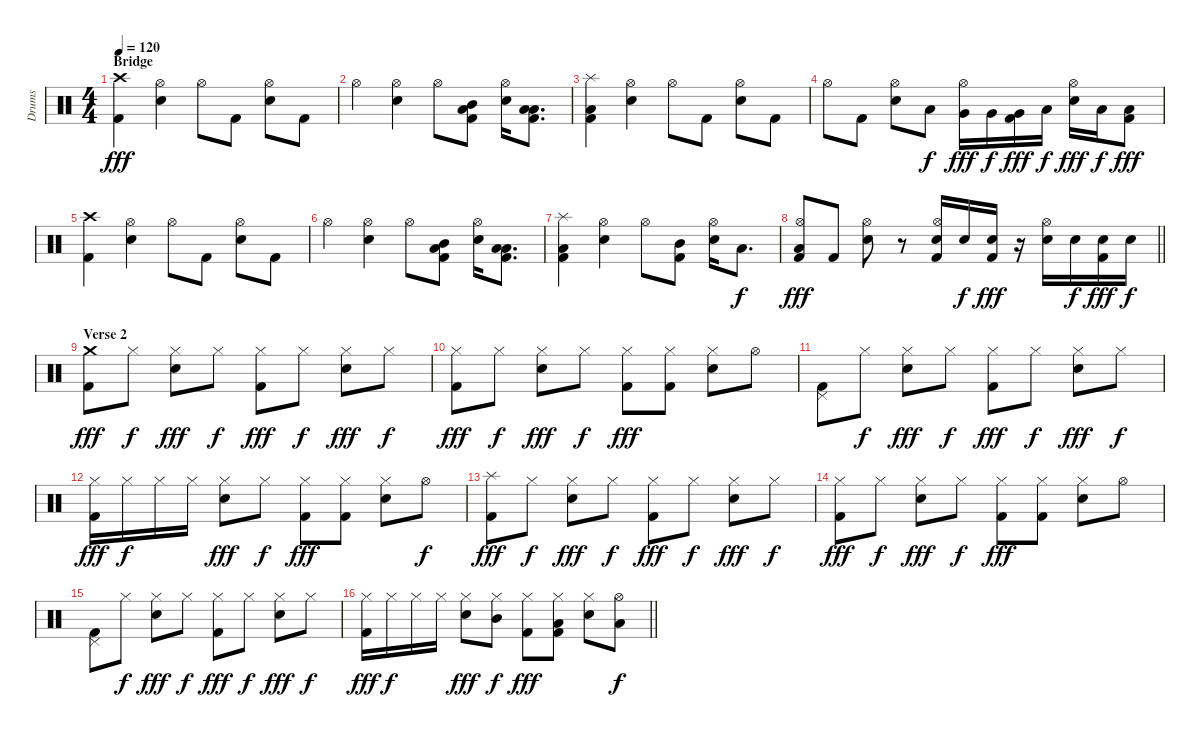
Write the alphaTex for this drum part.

\track ("Drums" "Drums") {instrument percussion}
\staff {score}
\articulation defaults
\ts (4 4)
\section ("" "Bridge")
\tempo 120
\clef neutral
\ks c
("Crash high (hit)" "Kick (hit) 2").4{dy fff} ("Hi-Hat (open)" "Snare (hit) 2").4 "Hi-Hat (open)".8 "Kick (hit) 2".8 ("Hi-Hat (open)" "Snare (hit) 2").8 "Kick (hit) 2".8 |
"Hi-Hat (open)".4 ("Hi-Hat (open)" "Snare (hit) 2").4 "Hi-Hat (open)".8 ("Mid Tom (hit)" "Low Floor Tom (hit)" "Kick (hit) 2").8 ("Hi-Hat (open)" "Snare (hit) 2").16 ("Low Tom (hit)" "Low Floor Tom (hit)" "Kick (hit) 2").8{d} |
("Splash (hit)" "Low Floor Tom (hit)" "Kick (hit) 2").4 ("Hi-Hat (open)" "Snare (hit) 2").4 "Hi-Hat (open)".8 "Kick (hit) 2".8 ("Hi-Hat (open)" "Snare (hit) 2").8 "Kick (hit) 2".8 |
"Hi-Hat (open)".8 "Kick (hit) 2".8 ("Hi-Hat (open)" "Snare (hit) 2").8 "Low Tom (hit)".8{dy f} ("Hi-Hat (open)" "Very Low Tom (hit)").16{dy fff} "Very Low Tom (hit)".16{dy f} ("Very Low Tom (hit)" "Kick (hit) 2").16{dy fff} "Low Floor Tom (hit)".16{dy f} ("Hi-Hat (open)" "Snare (hit) 2").16{dy fff} "Low Floor Tom (hit)".16{dy f} ("Low Floor Tom (hit)" "Kick (hit) 2").8{dy fff} |
("Crash high (hit)" "Kick (hit) 2").4 ("Hi-Hat (open)" "Snare (hit) 2").4 "Hi-Hat (open)".8 "Kick (hit) 2".8 ("Hi-Hat (open)" "Snare (hit) 2").8 "Kick (hit) 2".8 |
"Hi-Hat (open)".4 ("Hi-Hat (open)" "Snare (hit) 2").4 "Hi-Hat (open)".8 ("Mid Tom (hit)" "Low Floor Tom (hit)" "Kick (hit) 2").8 ("Hi-Hat (open)" "Snare (hit) 2").16 ("Low Tom (hit)" "Low Floor Tom (hit)" "Kick (hit) 2").8{d} |
("Splash (hit)" "Low Floor Tom (hit)" "Kick (hit) 2").4 ("Hi-Hat (open)" "Snare (hit) 2").4 "Hi-Hat (open)".8 ("Mid Tom (hit)" "Kick (hit) 2").8 ("Hi-Hat (open)" "Snare (hit) 2").16 "Low Tom (hit)".8{d dy f} |
\barLineRight lightlight
("Hi-Hat (open)" "Low Floor Tom (hit)" "Kick (hit) 2").8{dy fff} "Kick (hit) 2".8 ("Hi-Hat (open)" "Snare (hit) 2").8 r.8 ("Hi-Hat (open)" "Snare (hit) 2" "Kick (hit) 2").16 "Snare (hit) 2".16{dy f} ("Snare (hit) 2" "Kick (hit) 2").16{dy fff} r.16 ("Hi-Hat (open)" "Snare (hit) 2").16 "Snare (hit) 2".16{dy f} ("Snare (hit) 2" "Kick (hit) 2").16{dy fff} "Snare (hit) 2".16{dy f} |
\section ("" "Verse 2")
("Crash medium (hit)" "Kick (hit) 2").8{dy fff} "Hi-Hat (closed)".8{dy f} ("Hi-Hat (closed)" "Snare (hit) 2").8{dy fff} "Hi-Hat (closed)".8{dy f} ("Hi-Hat (closed)" "Kick (hit) 2").8{dy fff} "Hi-Hat (closed)".8{dy f} ("Hi-Hat (closed)" "Snare (hit) 2").8{dy fff} "Hi-Hat (closed)".8{dy f} |
("Hi-Hat (closed)" "Kick (hit) 2").8{dy fff} "Hi-Hat (closed)".8{dy f} ("Hi-Hat (closed)" "Snare (hit) 2").8{dy fff} "Hi-Hat (closed)".8{dy f} ("Hi-Hat (closed)" "Kick (hit) 2").8{dy fff} ("Hi-Hat (closed)" "Kick (hit) 2").8 ("Hi-Hat (closed)" "Snare (hit) 2").8 "Hi-Hat (open)".8 |
("Pedal Hi-Hat (hit)" "Kick (hit) 2").8 "Hi-Hat (closed)".8{dy f} ("Hi-Hat (closed)" "Snare (hit) 2").8{dy fff} "Hi-Hat (closed)".8{dy f} ("Hi-Hat (closed)" "Kick (hit) 2").8{dy fff} "Hi-Hat (closed)".8{dy f} ("Hi-Hat (closed)" "Snare (hit) 2").8{dy fff} "Hi-Hat (closed)".8{dy f} |
("Hi-Hat (closed)" "Kick (hit) 2").16{dy fff} "Hi-Hat (closed)".16{dy f} "Hi-Hat (closed)".16 "Hi-Hat (closed)".16 ("Hi-Hat (closed)" "Snare (hit) 2").8{dy fff} "Hi-Hat (closed)".8{dy f} ("Hi-Hat (closed)" "Kick (hit) 2").8{dy fff} ("Hi-Hat (closed)" "Kick (hit) 2").8 ("Hi-Hat (closed)" "Snare (hit) 2").8 "Hi-Hat (open)".8{dy f} |
("Splash (hit)" "Kick (hit) 2").8{dy fff} "Hi-Hat (closed)".8{dy f} ("Hi-Hat (closed)" "Snare (hit) 2").8{dy fff} "Hi-Hat (closed)".8{dy f} ("Hi-Hat (closed)" "Kick (hit) 2").8{dy fff} "Hi-Hat (closed)".8{dy f} ("Hi-Hat (closed)" "Snare (hit) 2").8{dy fff} "Hi-Hat (closed)".8{dy f} |
("Hi-Hat (closed)" "Kick (hit) 2").8{dy fff} "Hi-Hat (closed)".8{dy f} ("Hi-Hat (closed)" "Snare (hit) 2").8{dy fff} "Hi-Hat (closed)".8{dy f} ("Hi-Hat (closed)" "Kick (hit) 2").8{dy fff} ("Hi-Hat (closed)" "Kick (hit) 2").8 ("Hi-Hat (closed)" "Snare (hit) 2").8 "Hi-Hat (open)".8 |
("Pedal Hi-Hat (hit)" "Kick (hit) 2").8 "Hi-Hat (closed)".8{dy f} ("Hi-Hat (closed)" "Snare (hit) 2").8{dy fff} "Hi-Hat (closed)".8{dy f} ("Hi-Hat (closed)" "Kick (hit) 2").8{dy fff} "Hi-Hat (closed)".8{dy f} ("Hi-Hat (closed)" "Snare (hit) 2").8{dy fff} "Hi-Hat (closed)".8{dy f} |
\barLineRight lightlight
("Hi-Hat (closed)" "Kick (hit) 2").16{dy fff} "Hi-Hat (closed)".16{dy f} "Hi-Hat (closed)".16 "Hi-Hat (closed)".16 ("Hi-Hat (closed)" "Snare (hit) 2").8{dy fff} ("Hi-Hat (closed)" "Mid Tom (hit)").8{dy f} ("Hi-Hat (closed)" "Kick (hit) 2").8{dy fff} ("Hi-Hat (closed)" "Low Tom (hit)" "Kick (hit) 2").8 ("Hi-Hat (closed)" "Snare (hit) 2").8 ("Hi-Hat (open)" "Low Tom (hit)").8{dy f}
